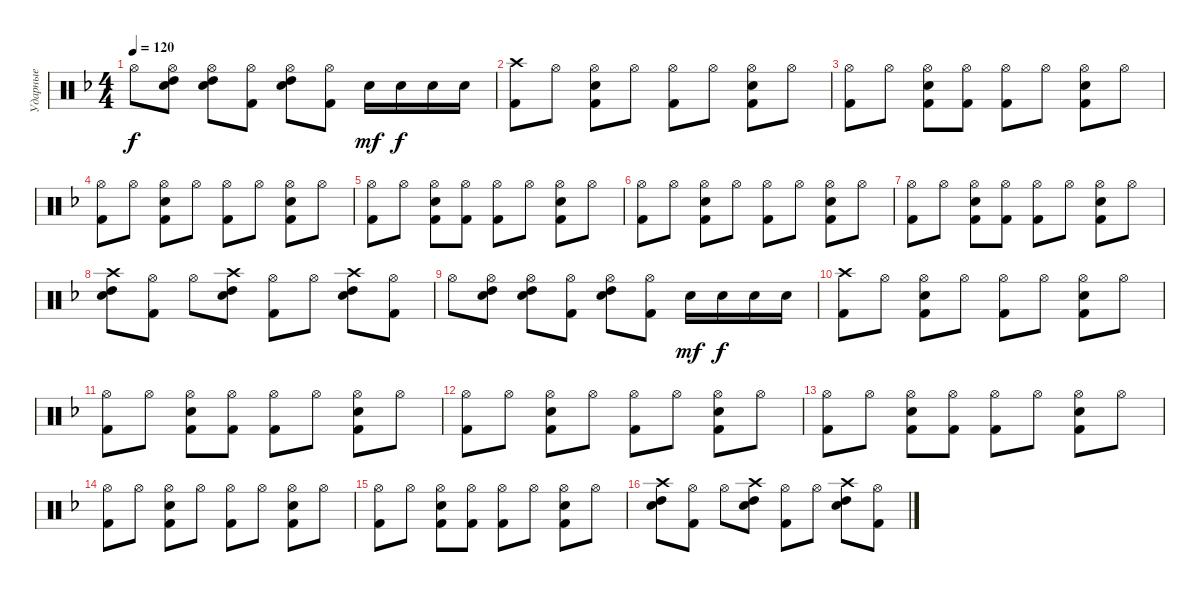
\track ("Ударные" "Ударные") {instrument percussion}
\staff {score}
\articulation defaults
\ts (4 4)
\tempo 120
\clef neutral
\ks f "Hi-Hat (open)".8{dy f}
("Electric Snare (hit)" "High Tom (hit)" "Hi-Hat (open)").8 ("Electric Snare (hit)" "High Tom (hit)" "Hi-Hat (open)").8 ("Kick (hit) 2" "Hi-Hat (open)").8 ("Electric Snare (hit)" "High Tom (hit)" "Hi-Hat (open)").8 ("Kick (hit) 2" "Hi-Hat (open)").8 "Electric Snare (hit)".16{dy mf} "Electric Snare (hit)".16{dy f} "Electric Snare (hit)".16 "Electric Snare (hit)".16 |
("Kick (hit) 2" "Crash high (hit)").8 "Hi-Hat (open)".8 ("Kick (hit) 2" "Electric Snare (hit)" "Hi-Hat (open)").8 "Hi-Hat (open)".8 ("Kick (hit) 2" "Hi-Hat (open)").8 "Hi-Hat (open)".8 ("Kick (hit) 2" "Electric Snare (hit)" "Hi-Hat (open)").8 "Hi-Hat (open)".8 |
("Kick (hit) 2" "Hi-Hat (open)").8 "Hi-Hat (open)".8 ("Kick (hit) 2" "Electric Snare (hit)" "Hi-Hat (open)").8 ("Kick (hit) 2" "Hi-Hat (open)").8 ("Kick (hit) 2" "Hi-Hat (open)").8 "Hi-Hat (open)".8 ("Kick (hit) 2" "Electric Snare (hit)" "Hi-Hat (open)").8 "Hi-Hat (open)".8 |
("Kick (hit) 2" "Hi-Hat (open)").8 "Hi-Hat (open)".8 ("Kick (hit) 2" "Electric Snare (hit)" "Hi-Hat (open)").8 "Hi-Hat (open)".8 ("Kick (hit) 2" "Hi-Hat (open)").8 "Hi-Hat (open)".8 ("Kick (hit) 2" "Electric Snare (hit)" "Hi-Hat (open)").8 "Hi-Hat (open)".8 |
("Kick (hit) 2" "Hi-Hat (open)").8 "Hi-Hat (open)".8 ("Kick (hit) 2" "Electric Snare (hit)" "Hi-Hat (open)").8 ("Kick (hit) 2" "Hi-Hat (open)").8 ("Kick (hit) 2" "Hi-Hat (open)").8 "Hi-Hat (open)".8 ("Kick (hit) 2" "Electric Snare (hit)" "Hi-Hat (open)").8 "Hi-Hat (open)".8 |
("Kick (hit) 2" "Hi-Hat (open)").8 "Hi-Hat (open)".8 ("Kick (hit) 2" "Electric Snare (hit)" "Hi-Hat (open)").8 "Hi-Hat (open)".8 ("Kick (hit) 2" "Hi-Hat (open)").8 "Hi-Hat (open)".8 ("Kick (hit) 2" "Electric Snare (hit)" "Hi-Hat (open)").8 "Hi-Hat (open)".8 |
("Kick (hit) 2" "Hi-Hat (open)").8 "Hi-Hat (open)".8 ("Kick (hit) 2" "Electric Snare (hit)" "Hi-Hat (open)").8 ("Kick (hit) 2" "Hi-Hat (open)").8 ("Kick (hit) 2" "Hi-Hat (open)").8 "Hi-Hat (open)".8 ("Kick (hit) 2" "Electric Snare (hit)" "Hi-Hat (open)").8 "Hi-Hat (open)".8 |
("Electric Snare (hit)" "High Tom (hit)" "Crash high (hit)").8 ("Kick (hit) 2" "Hi-Hat (open)").8 "Hi-Hat (open)".8 ("Electric Snare (hit)" "High Tom (hit)" "Crash high (hit)").8 ("Kick (hit) 2" "Hi-Hat (open)").8 "Hi-Hat (open)".8 ("Electric Snare (hit)" "High Tom (hit)" "Crash high (hit)").8 ("Kick (hit) 2" "Hi-Hat (open)").8 |
"Hi-Hat (open)".8 ("Electric Snare (hit)" "High Tom (hit)" "Hi-Hat (open)").8 ("Electric Snare (hit)" "High Tom (hit)" "Hi-Hat (open)").8 ("Kick (hit) 2" "Hi-Hat (open)").8 ("Electric Snare (hit)" "High Tom (hit)" "Hi-Hat (open)").8 ("Kick (hit) 2" "Hi-Hat (open)").8 "Electric Snare (hit)".16{dy mf} "Electric Snare (hit)".16{dy f} "Electric Snare (hit)".16 "Electric Snare (hit)".16 |
("Kick (hit) 2" "Crash high (hit)").8{volume 10} "Hi-Hat (open)".8 ("Kick (hit) 2" "Electric Snare (hit)" "Hi-Hat (open)").8 "Hi-Hat (open)".8 ("Kick (hit) 2" "Hi-Hat (open)").8 "Hi-Hat (open)".8 ("Kick (hit) 2" "Electric Snare (hit)" "Hi-Hat (open)").8 "Hi-Hat (open)".8 |
("Kick (hit) 2" "Hi-Hat (open)").8 "Hi-Hat (open)".8 ("Kick (hit) 2" "Electric Snare (hit)" "Hi-Hat (open)").8 ("Kick (hit) 2" "Hi-Hat (open)").8 ("Kick (hit) 2" "Hi-Hat (open)").8 "Hi-Hat (open)".8 ("Kick (hit) 2" "Electric Snare (hit)" "Hi-Hat (open)").8 "Hi-Hat (open)".8 |
("Kick (hit) 2" "Hi-Hat (open)").8 "Hi-Hat (open)".8 ("Kick (hit) 2" "Electric Snare (hit)" "Hi-Hat (open)").8 "Hi-Hat (open)".8 ("Kick (hit) 2" "Hi-Hat (open)").8 "Hi-Hat (open)".8 ("Kick (hit) 2" "Electric Snare (hit)" "Hi-Hat (open)").8 "Hi-Hat (open)".8 |
("Kick (hit) 2" "Hi-Hat (open)").8 "Hi-Hat (open)".8 ("Kick (hit) 2" "Electric Snare (hit)" "Hi-Hat (open)").8 ("Kick (hit) 2" "Hi-Hat (open)").8 ("Kick (hit) 2" "Hi-Hat (open)").8 "Hi-Hat (open)".8 ("Kick (hit) 2" "Electric Snare (hit)" "Hi-Hat (open)").8 "Hi-Hat (open)".8 |
("Kick (hit) 2" "Hi-Hat (open)").8{volume 7} "Hi-Hat (open)".8 ("Kick (hit) 2" "Electric Snare (hit)" "Hi-Hat (open)").8 "Hi-Hat (open)".8 ("Kick (hit) 2" "Hi-Hat (open)").8 "Hi-Hat (open)".8 ("Kick (hit) 2" "Electric Snare (hit)" "Hi-Hat (open)").8 "Hi-Hat (open)".8 |
("Kick (hit) 2" "Hi-Hat (open)").8 "Hi-Hat (open)".8 ("Kick (hit) 2" "Electric Snare (hit)" "Hi-Hat (open)").8 ("Kick (hit) 2" "Hi-Hat (open)").8 ("Kick (hit) 2" "Hi-Hat (open)").8 "Hi-Hat (open)".8 ("Kick (hit) 2" "Electric Snare (hit)" "Hi-Hat (open)").8 "Hi-Hat (open)".8 |
("Electric Snare (hit)" "High Tom (hit)" "Crash high (hit)").8 ("Kick (hit) 2" "Hi-Hat (open)").8 "Hi-Hat (open)".8 ("Electric Snare (hit)" "High Tom (hit)" "Crash high (hit)").8 ("Kick (hit) 2" "Hi-Hat (open)").8 "Hi-Hat (open)".8 ("Electric Snare (hit)" "High Tom (hit)" "Crash high (hit)").8 ("Kick (hit) 2" "Hi-Hat (open)").8
